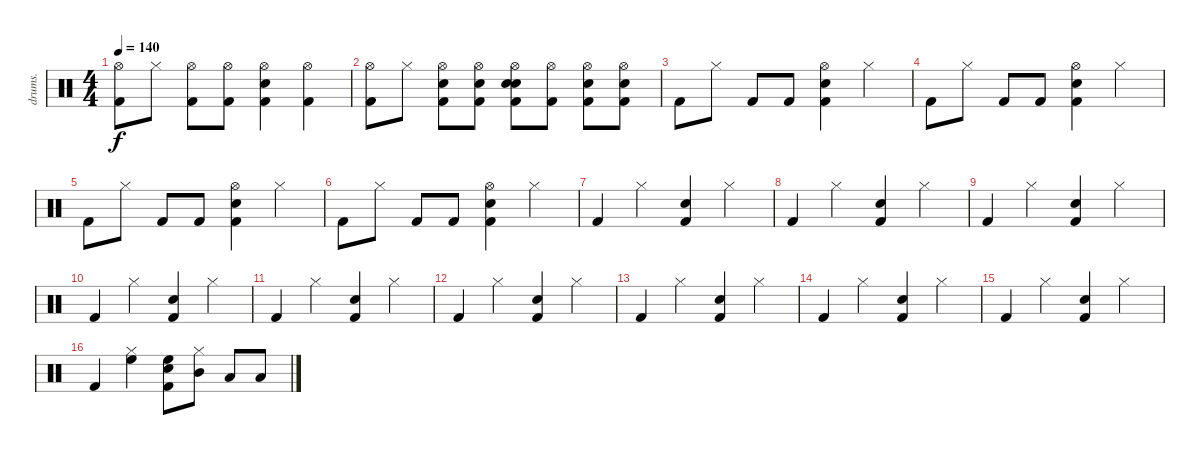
\track ("drums." "drums.") {instrument percussion}
\staff {score}
\articulation defaults
\ts (4 4)
\tempo 140
\clef neutral
\ks c
("Hi-Hat (open)" "Kick (hit) 2").8{dy f} "Hi-Hat (closed)".8 ("Hi-Hat (open)" "Kick (hit) 2").8 ("Hi-Hat (open)" "Kick (hit) 2").8 ("Hi-Hat (open)" "Electric Snare (hit)" "Kick (hit) 2").4 ("Hi-Hat (open)" "Kick (hit) 2").4 |
("Hi-Hat (open)" "Kick (hit) 2").8 "Hi-Hat (closed)".8 ("Snare (hit) 2" "Hi-Hat (open)" "Kick (hit) 2").8 ("Snare (hit) 2" "Hi-Hat (open)" "Kick (hit) 2").8 ("Snare (hit) 2" "Hi-Hat (open)" "Electric Snare (hit)" "Kick (hit) 2").8 ("Hi-Hat (open)" "Kick (hit) 2").8 ("Snare (hit) 2" "Hi-Hat (open)" "Kick (hit) 2").8 ("Snare (hit) 2" "Hi-Hat (open)" "Kick (hit) 2").8 |
"Kick (hit) 2".8 "Hi-Hat (closed)".8 "Kick (hit) 2".8 "Kick (hit) 2".8 ("Hi-Hat (open)" "Electric Snare (hit)" "Kick (hit) 2").4 "Hi-Hat (closed)".4 |
"Kick (hit) 2".8 "Hi-Hat (closed)".8 "Kick (hit) 2".8 "Kick (hit) 2".8 ("Hi-Hat (open)" "Electric Snare (hit)" "Kick (hit) 2").4 "Hi-Hat (closed)".4 |
"Kick (hit) 2".8 "Hi-Hat (closed)".8 "Kick (hit) 2".8 "Kick (hit) 2".8 ("Hi-Hat (open)" "Electric Snare (hit)" "Kick (hit) 2").4 "Hi-Hat (closed)".4 |
"Kick (hit) 2".8 "Hi-Hat (closed)".8 "Kick (hit) 2".8 "Kick (hit) 2".8 ("Hi-Hat (open)" "Electric Snare (hit)" "Kick (hit) 2").4 "Hi-Hat (closed)".4 |
"Kick (hit) 2".4 "Hi-Hat (closed)".4 ("Electric Snare (hit)" "Kick (hit) 2").4 "Hi-Hat (closed)".4 |
"Kick (hit) 2".4 "Hi-Hat (closed)".4 ("Electric Snare (hit)" "Kick (hit) 2").4 "Hi-Hat (closed)".4 |
"Kick (hit) 2".4 "Hi-Hat (closed)".4 ("Electric Snare (hit)" "Kick (hit) 2").4 "Hi-Hat (closed)".4 |
"Kick (hit) 2".4 "Hi-Hat (closed)".4 ("Electric Snare (hit)" "Kick (hit) 2").4 "Hi-Hat (closed)".4 |
"Kick (hit) 2".4 "Hi-Hat (closed)".4 ("Electric Snare (hit)" "Kick (hit) 2").4 "Hi-Hat (closed)".4 |
"Kick (hit) 2".4 "Hi-Hat (closed)".4 ("Electric Snare (hit)" "Kick (hit) 2").4 "Hi-Hat (closed)".4 |
"Kick (hit) 2".4 "Hi-Hat (closed)".4 ("Electric Snare (hit)" "Kick (hit) 2").4 "Hi-Hat (closed)".4 |
"Kick (hit) 2".4 "Hi-Hat (closed)".4 ("Electric Snare (hit)" "Kick (hit) 2").4 "Hi-Hat (closed)".4 |
"Kick (hit) 2".4 "Hi-Hat (closed)".4 ("Electric Snare (hit)" "Kick (hit) 2").4 "Hi-Hat (closed)".4 |
"Kick (hit) 2".4 ("High Floor Tom (hit)" "Hi-Hat (closed)").4 ("High Floor Tom (hit)" "Electric Snare (hit)" "Kick (hit) 2").8 ("Mid Tom (hit)" "Hi-Hat (closed)").8 "Low Tom (hit)".8 "Low Floor Tom (hit)".8
